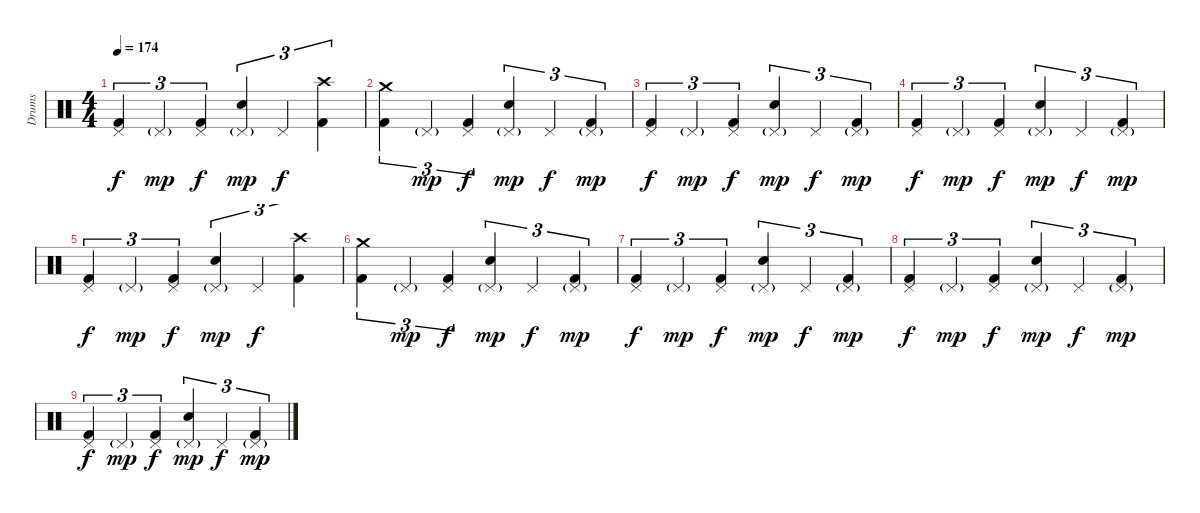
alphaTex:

\track ("Drums" "Drums") {instrument percussion}
\staff {score}
\articulation defaults
\ts (4 4)
\tempo 174
\clef neutral
\ks c
("Pedal Hi-Hat (hit)" "Kick (hit) 2").4{tu (3 2) dy f} "Pedal Hi-Hat (hit)"{g}.4{tu (3 2) dy mp} ("Pedal Hi-Hat (hit)" "Kick (hit) 2").4{tu (3 2) dy f} ("Pedal Hi-Hat (hit)"{g} "Electric Snare (hit)").4{tu (3 2) dy mp} "Pedal Hi-Hat (hit)".4{tu (3 2) dy f} ("Crash high (hit)" "Kick (hit) 2").4{tu (3 2)} |
("Crash medium (hit)" "Kick (hit) 2").4{tu (3 2)} "Pedal Hi-Hat (hit)"{g}.4{tu (3 2) dy mp} ("Pedal Hi-Hat (hit)" "Kick (hit) 2").4{tu (3 2) dy f} ("Pedal Hi-Hat (hit)"{g} "Electric Snare (hit)").4{tu (3 2) dy mp} "Pedal Hi-Hat (hit)".4{tu (3 2) dy f} ("Pedal Hi-Hat (hit)"{g} "Kick (hit) 2").4{tu (3 2) dy mp} |
("Pedal Hi-Hat (hit)" "Kick (hit) 2").4{tu (3 2) dy f} "Pedal Hi-Hat (hit)"{g}.4{tu (3 2) dy mp} ("Pedal Hi-Hat (hit)" "Kick (hit) 2").4{tu (3 2) dy f} ("Pedal Hi-Hat (hit)"{g} "Electric Snare (hit)").4{tu (3 2) dy mp} "Pedal Hi-Hat (hit)".4{tu (3 2) dy f} ("Pedal Hi-Hat (hit)"{g} "Kick (hit) 2").4{tu (3 2) dy mp} |
("Pedal Hi-Hat (hit)" "Kick (hit) 2").4{tu (3 2) dy f} "Pedal Hi-Hat (hit)"{g}.4{tu (3 2) dy mp} ("Pedal Hi-Hat (hit)" "Kick (hit) 2").4{tu (3 2) dy f} ("Pedal Hi-Hat (hit)"{g} "Electric Snare (hit)").4{tu (3 2) dy mp} "Pedal Hi-Hat (hit)".4{tu (3 2) dy f} ("Pedal Hi-Hat (hit)"{g} "Kick (hit) 2").4{tu (3 2) dy mp} |
("Pedal Hi-Hat (hit)" "Kick (hit) 2").4{tu (3 2) dy f} "Pedal Hi-Hat (hit)"{g}.4{tu (3 2) dy mp} ("Pedal Hi-Hat (hit)" "Kick (hit) 2").4{tu (3 2) dy f} ("Pedal Hi-Hat (hit)"{g} "Electric Snare (hit)").4{tu (3 2) dy mp} "Pedal Hi-Hat (hit)".4{tu (3 2) dy f} ("Crash high (hit)" "Kick (hit) 2").4{tu (3 2)} |
("Crash medium (hit)" "Kick (hit) 2").4{tu (3 2)} "Pedal Hi-Hat (hit)"{g}.4{tu (3 2) dy mp} ("Pedal Hi-Hat (hit)" "Kick (hit) 2").4{tu (3 2) dy f} ("Pedal Hi-Hat (hit)"{g} "Electric Snare (hit)").4{tu (3 2) dy mp} "Pedal Hi-Hat (hit)".4{tu (3 2) dy f} ("Pedal Hi-Hat (hit)"{g} "Kick (hit) 2").4{tu (3 2) dy mp} |
("Pedal Hi-Hat (hit)" "Kick (hit) 2").4{tu (3 2) dy f} "Pedal Hi-Hat (hit)"{g}.4{tu (3 2) dy mp} ("Pedal Hi-Hat (hit)" "Kick (hit) 2").4{tu (3 2) dy f} ("Pedal Hi-Hat (hit)"{g} "Electric Snare (hit)").4{tu (3 2) dy mp} "Pedal Hi-Hat (hit)".4{tu (3 2) dy f} ("Pedal Hi-Hat (hit)"{g} "Kick (hit) 2").4{tu (3 2) dy mp} |
("Pedal Hi-Hat (hit)" "Kick (hit) 2").4{tu (3 2) dy f} "Pedal Hi-Hat (hit)"{g}.4{tu (3 2) dy mp} ("Pedal Hi-Hat (hit)" "Kick (hit) 2").4{tu (3 2) dy f} ("Pedal Hi-Hat (hit)"{g} "Electric Snare (hit)").4{tu (3 2) dy mp} "Pedal Hi-Hat (hit)".4{tu (3 2) dy f} ("Pedal Hi-Hat (hit)"{g} "Kick (hit) 2").4{tu (3 2) dy mp} |
("Pedal Hi-Hat (hit)" "Kick (hit) 2").4{tu (3 2) dy f} "Pedal Hi-Hat (hit)"{g}.4{tu (3 2) dy mp} ("Pedal Hi-Hat (hit)" "Kick (hit) 2").4{tu (3 2) dy f} ("Pedal Hi-Hat (hit)"{g} "Electric Snare (hit)").4{tu (3 2) dy mp} "Pedal Hi-Hat (hit)".4{tu (3 2) dy f} ("Pedal Hi-Hat (hit)"{g} "Kick (hit) 2").4{tu (3 2) dy mp}
